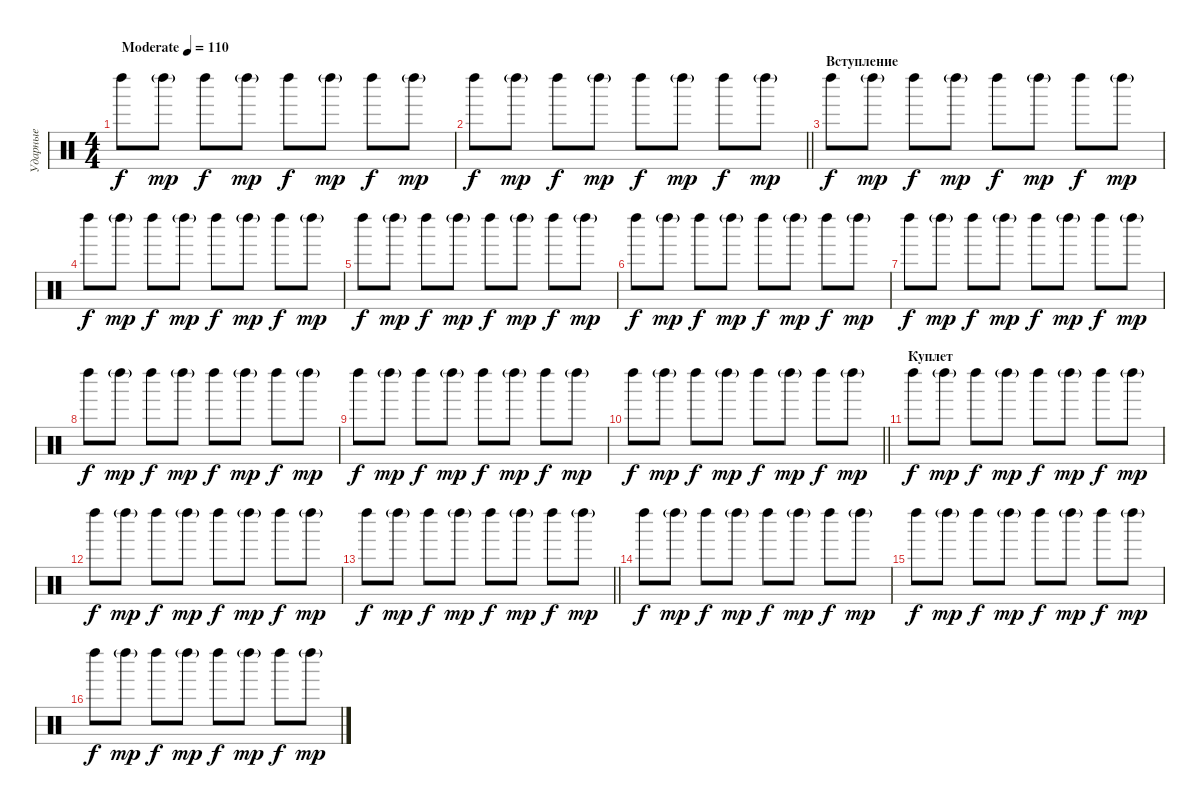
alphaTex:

\track ("Ударные" "Ударные") {instrument percussion}
\staff {score}
\articulation defaults
\ts (4 4)
\tempo (110 "Moderate")
\clef neutral
\ks c "Left Maraca (hit)".8{dy f} "Left Maraca (hit)"{g}.8{dy mp} "Left Maraca (hit)".8{dy f} "Left Maraca (hit)"{g}.8{dy mp} "Left Maraca (hit)".8{dy f} "Left Maraca (hit)"{g}.8{dy mp} "Left Maraca (hit)".8{dy f} "Left Maraca (hit)"{g}.8{dy mp}
|
\barLineRight lightlight "Left Maraca (hit)".8{dy f} "Left Maraca (hit)"{g}.8{dy mp} "Left Maraca (hit)".8{dy f} "Left Maraca (hit)"{g}.8{dy mp} "Left Maraca (hit)".8{dy f} "Left Maraca (hit)"{g}.8{dy mp} "Left Maraca (hit)".8{dy f} "Left Maraca (hit)"{g}.8{dy mp}
|
\section ("" "Вступление")
"Left Maraca (hit)".8{dy f} "Left Maraca (hit)"{g}.8{dy mp} "Left Maraca (hit)".8{dy f} "Left Maraca (hit)"{g}.8{dy mp} "Left Maraca (hit)".8{dy f} "Left Maraca (hit)"{g}.8{dy mp} "Left Maraca (hit)".8{dy f} "Left Maraca (hit)"{g}.8{dy mp} |
"Left Maraca (hit)".8{dy f} "Left Maraca (hit)"{g}.8{dy mp} "Left Maraca (hit)".8{dy f} "Left Maraca (hit)"{g}.8{dy mp} "Left Maraca (hit)".8{dy f} "Left Maraca (hit)"{g}.8{dy mp} "Left Maraca (hit)".8{dy f} "Left Maraca (hit)"{g}.8{dy mp} |
"Left Maraca (hit)".8{dy f} "Left Maraca (hit)"{g}.8{dy mp} "Left Maraca (hit)".8{dy f} "Left Maraca (hit)"{g}.8{dy mp} "Left Maraca (hit)".8{dy f} "Left Maraca (hit)"{g}.8{dy mp} "Left Maraca (hit)".8{dy f} "Left Maraca (hit)"{g}.8{dy mp} |
"Left Maraca (hit)".8{dy f} "Left Maraca (hit)"{g}.8{dy mp} "Left Maraca (hit)".8{dy f} "Left Maraca (hit)"{g}.8{dy mp} "Left Maraca (hit)".8{dy f} "Left Maraca (hit)"{g}.8{dy mp} "Left Maraca (hit)".8{dy f} "Left Maraca (hit)"{g}.8{dy mp} |
"Left Maraca (hit)".8{dy f} "Left Maraca (hit)"{g}.8{dy mp} "Left Maraca (hit)".8{dy f} "Left Maraca (hit)"{g}.8{dy mp} "Left Maraca (hit)".8{dy f} "Left Maraca (hit)"{g}.8{dy mp} "Left Maraca (hit)".8{dy f} "Left Maraca (hit)"{g}.8{dy mp} |
"Left Maraca (hit)".8{dy f} "Left Maraca (hit)"{g}.8{dy mp} "Left Maraca (hit)".8{dy f} "Left Maraca (hit)"{g}.8{dy mp} "Left Maraca (hit)".8{dy f} "Left Maraca (hit)"{g}.8{dy mp} "Left Maraca (hit)".8{dy f} "Left Maraca (hit)"{g}.8{dy mp} |
"Left Maraca (hit)".8{dy f} "Left Maraca (hit)"{g}.8{dy mp} "Left Maraca (hit)".8{dy f} "Left Maraca (hit)"{g}.8{dy mp} "Left Maraca (hit)".8{dy f} "Left Maraca (hit)"{g}.8{dy mp} "Left Maraca (hit)".8{dy f} "Left Maraca (hit)"{g}.8{dy mp} |
\barLineRight lightlight "Left Maraca (hit)".8{dy f} "Left Maraca (hit)"{g}.8{dy mp} "Left Maraca (hit)".8{dy f} "Left Maraca (hit)"{g}.8{dy mp} "Left Maraca (hit)".8{dy f} "Left Maraca (hit)"{g}.8{dy mp} "Left Maraca (hit)".8{dy f} "Left Maraca (hit)"{g}.8{dy mp}
|
\section ("" "Куплет")
"Left Maraca (hit)".8{dy f} "Left Maraca (hit)"{g}.8{dy mp} "Left Maraca (hit)".8{dy f} "Left Maraca (hit)"{g}.8{dy mp} "Left Maraca (hit)".8{dy f} "Left Maraca (hit)"{g}.8{dy mp} "Left Maraca (hit)".8{dy f} "Left Maraca (hit)"{g}.8{dy mp} |
"Left Maraca (hit)".8{dy f} "Left Maraca (hit)"{g}.8{dy mp} "Left Maraca (hit)".8{dy f} "Left Maraca (hit)"{g}.8{dy mp} "Left Maraca (hit)".8{dy f} "Left Maraca (hit)"{g}.8{dy mp} "Left Maraca (hit)".8{dy f} "Left Maraca (hit)"{g}.8{dy mp} |
\barLineRight lightlight "Left Maraca (hit)".8{dy f} "Left Maraca (hit)"{g}.8{dy mp} "Left Maraca (hit)".8{dy f} "Left Maraca (hit)"{g}.8{dy mp} "Left Maraca (hit)".8{dy f} "Left Maraca (hit)"{g}.8{dy mp} "Left Maraca (hit)".8{dy f} "Left Maraca (hit)"{g}.8{dy mp}
|
"Left Maraca (hit)".8{dy f} "Left Maraca (hit)"{g}.8{dy mp} "Left Maraca (hit)".8{dy f} "Left Maraca (hit)"{g}.8{dy mp} "Left Maraca (hit)".8{dy f} "Left Maraca (hit)"{g}.8{dy mp} "Left Maraca (hit)".8{dy f} "Left Maraca (hit)"{g}.8{dy mp} |
"Left Maraca (hit)".8{dy f} "Left Maraca (hit)"{g}.8{dy mp} "Left Maraca (hit)".8{dy f} "Left Maraca (hit)"{g}.8{dy mp} "Left Maraca (hit)".8{dy f} "Left Maraca (hit)"{g}.8{dy mp} "Left Maraca (hit)".8{dy f} "Left Maraca (hit)"{g}.8{dy mp} |
"Left Maraca (hit)".8{dy f} "Left Maraca (hit)"{g}.8{dy mp} "Left Maraca (hit)".8{dy f} "Left Maraca (hit)"{g}.8{dy mp} "Left Maraca (hit)".8{dy f} "Left Maraca (hit)"{g}.8{dy mp} "Left Maraca (hit)".8{dy f} "Left Maraca (hit)"{g}.8{dy mp}
